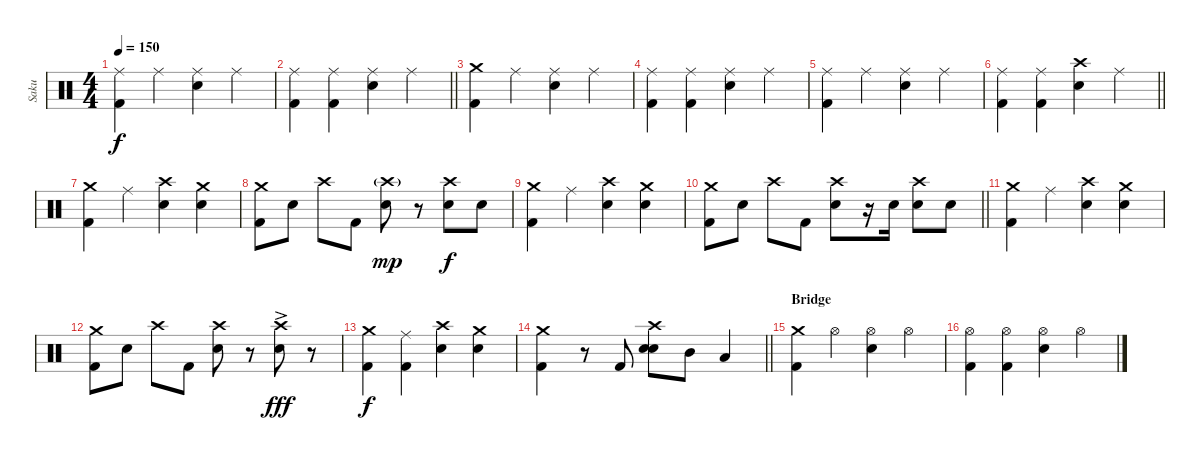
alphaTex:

\track ("Saku" "Saku") {instrument percussion}
\staff {score}
\articulation defaults
\ts (4 4)
\tempo 150
\clef neutral
\ks c
("Ride (middle)" "Kick (hit) 2").4{dy f} "Ride (middle)".4 ("Ride (middle)" "Electric Snare (hit)").4 "Ride (middle)".4 |
\barLineRight lightlight
("Ride (middle)" "Kick (hit) 2").4 ("Ride (middle)" "Kick (hit) 2").4 ("Ride (middle)" "Electric Snare (hit)").4 "Ride (middle)".4 |
("Crash medium (hit)" "Kick (hit) 2").4 "Ride (middle)".4 ("Ride (middle)" "Electric Snare (hit)").4 "Ride (middle)".4 |
("Ride (middle)" "Kick (hit) 2").4 ("Ride (middle)" "Kick (hit) 2").4 ("Ride (middle)" "Electric Snare (hit)").4 "Ride (middle)".4 |
("Ride (middle)" "Kick (hit) 2").4 "Ride (middle)".4 ("Ride (middle)" "Electric Snare (hit)").4 "Ride (middle)".4 |
\barLineRight lightlight
("Ride (middle)" "Kick (hit) 2").4 ("Ride (middle)" "Kick (hit) 2").4 ("Crash high (hit)" "Electric Snare (hit)").4 "Ride (middle)".4 |
("Crash medium (hit)" "Kick (hit) 2").4 "Ride (middle)".4 ("Crash high (hit)" "Electric Snare (hit)").4 ("Crash medium (hit)" "Electric Snare (hit)").4 |
("Crash medium (hit)" "Kick (hit) 2").8 "Electric Snare (hit)".8 "Crash high (hit)".8 "Kick (hit) 2".8 ("Crash high (hit)"{g} "Electric Snare (hit)").8{dy mp} r.8 ("Crash high (hit)" "Electric Snare (hit)").8{dy f} "Electric Snare (hit)".8 |
("Crash medium (hit)" "Kick (hit) 2").4 "Ride (middle)".4 ("Crash high (hit)" "Electric Snare (hit)").4 ("Crash medium (hit)" "Electric Snare (hit)").4 |
\barLineRight lightlight
("Crash medium (hit)" "Kick (hit) 2").8 "Electric Snare (hit)".8 "Crash high (hit)".8 "Kick (hit) 2".8 ("Crash high (hit)" "Electric Snare (hit)").8 r.16 "Electric Snare (hit)".16 ("Crash high (hit)" "Electric Snare (hit)").8 "Electric Snare (hit)".8 |
("Crash medium (hit)" "Kick (hit) 2").4 "Ride (middle)".4 ("Crash high (hit)" "Electric Snare (hit)").4 ("Crash medium (hit)" "Electric Snare (hit)").4 |
("Crash medium (hit)" "Kick (hit) 2").8 "Electric Snare (hit)".8 "Crash high (hit)".8 "Kick (hit) 2".8 ("Crash high (hit)" "Electric Snare (hit)").8 r.8 ("Crash high (hit)"{ac} "Electric Snare (hit)").8{dy fff} r.8 |
("Crash medium (hit)" "Kick (hit) 2").4{dy f} ("Ride (middle)" "Kick (hit) 2").4 ("Crash high (hit)" "Electric Snare (hit)").4 ("Crash medium (hit)" "Electric Snare (hit)").4 |
\barLineRight lightlight
("Crash medium (hit)" "Kick (hit) 2").4 r.8 "Kick (hit) 2".8 ("Crash high (hit)" "Electric Snare (hit)" "Electric Snare (hit)").8{bu 120} "Mid Tom (hit)".8 "Low Tom (hit)".4 |
\section ("" "Bridge")
("Crash medium (hit)" "Kick (hit) 2").4 "Hi-Hat (open)".4 ("Hi-Hat (open)" "Electric Snare (hit)").4 "Hi-Hat (open)".4 |
("Hi-Hat (open)" "Kick (hit) 2").4 ("Hi-Hat (open)" "Kick (hit) 2").4 ("Hi-Hat (open)" "Electric Snare (hit)").4 "Hi-Hat (open)".4
